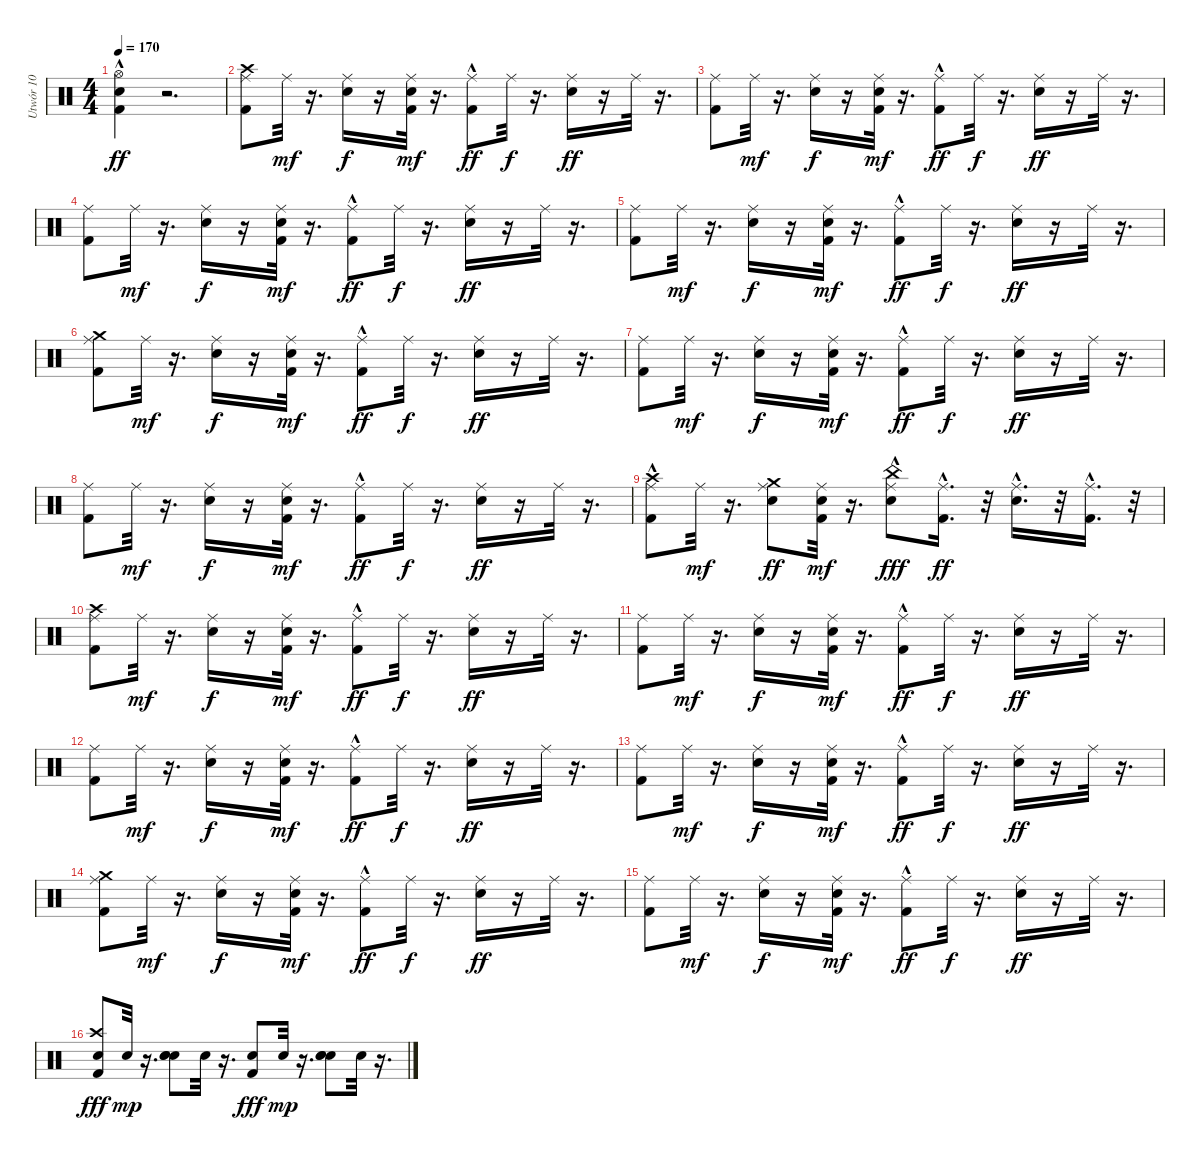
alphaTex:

\track ("Utwór 10" "Utwór 10") {instrument percussion}
\staff {score}
\articulation defaults
\ts (4 4)
\tempo 170
\clef neutral
\ks c
("Hi-Hat (open)" "Electric Snare (hit)" "Kick (hit) 2"{hac}).4{dy ff} r.2{d} |
("Crash high (hit)" "Kick (hit) 2" "Ride (middle)").8 "Ride (middle)".32{dy mf} r.16{d} ("Ride (middle)" "Snare (hit) 2").16{dy f} r.16 ("Ride (middle)" "Snare (hit) 2" "Kick (hit) 2").32{dy mf} r.16{d} ("Ride (middle)" "Kick (hit) 2"{hac}).8{dy ff} "Ride (middle)".32{dy f} r.16{d} ("Snare (hit) 2" "Ride (middle)").16{dy ff} r.16 "Ride (middle)".32 r.16{d} |
("Kick (hit) 2" "Ride (middle)").8 "Ride (middle)".32{dy mf} r.16{d} ("Snare (hit) 2" "Ride (middle)").16{dy f} r.16 ("Snare (hit) 2" "Ride (middle)" "Kick (hit) 2").32{dy mf} r.16{d} ("Ride (middle)" "Kick (hit) 2"{hac}).8{dy ff} "Ride (middle)".32{dy f} r.16{d} ("Snare (hit) 2" "Ride (middle)").16{dy ff} r.16 "Ride (middle)".32 r.16{d} |
("Ride (middle)" "Kick (hit) 2").8 "Ride (middle)".32{dy mf} r.16{d} ("Ride (middle)" "Snare (hit) 2").16{dy f} r.16 ("Snare (hit) 2" "Kick (hit) 2" "Ride (middle)").32{dy mf} r.16{d} ("Ride (middle)" "Kick (hit) 2"{hac}).8{dy ff} "Ride (middle)".32{dy f} r.16{d} ("Ride (middle)" "Snare (hit) 2").16{dy ff} r.16 "Ride (middle)".32 r.16{d} |
("Ride (middle)" "Kick (hit) 2").8 "Ride (middle)".32{dy mf} r.16{d} ("Snare (hit) 2" "Ride (middle)").16{dy f} r.16 ("Ride (middle)" "Kick (hit) 2" "Snare (hit) 2").32{dy mf} r.16{d} ("Ride (middle)" "Kick (hit) 2"{hac}).8{dy ff} "Ride (middle)".32{dy f} r.16{d} ("Snare (hit) 2" "Ride (middle)").16{dy ff} r.16 "Ride (middle)".32 r.16{d} |
("Crash medium (hit)" "Ride (middle)" "Kick (hit) 2").8 "Ride (middle)".32{dy mf} r.16{d} ("Snare (hit) 2" "Ride (middle)").16{dy f} r.16 ("Kick (hit) 2" "Ride (middle)" "Snare (hit) 2").32{dy mf} r.16{d} ("Kick (hit) 2"{hac} "Ride (middle)").8{dy ff} "Ride (middle)".32{dy f} r.16{d} ("Snare (hit) 2" "Ride (middle)").16{dy ff} r.16 "Ride (middle)".32 r.16{d} |
("Kick (hit) 2" "Ride (middle)").8 "Ride (middle)".32{dy mf} r.16{d} ("Snare (hit) 2" "Ride (middle)").16{dy f} r.16 ("Snare (hit) 2" "Ride (middle)" "Kick (hit) 2").32{dy mf} r.16{d} ("Ride (middle)" "Kick (hit) 2"{hac}).8{dy ff} "Ride (middle)".32{dy f} r.16{d} ("Snare (hit) 2" "Ride (middle)").16{dy ff} r.16 "Ride (middle)".32 r.16{d} |
("Ride (middle)" "Kick (hit) 2").8 "Ride (middle)".32{dy mf} r.16{d} ("Snare (hit) 2" "Ride (middle)").16{dy f} r.16 ("Ride (middle)" "Kick (hit) 2" "Snare (hit) 2").32{dy mf} r.16{d} ("Kick (hit) 2"{hac} "Ride (middle)").8{dy ff} "Ride (middle)".32{dy f} r.16{d} ("Snare (hit) 2" "Ride (middle)").16{dy ff} r.16 "Ride (middle)".32 r.16{d} |
("Kick (hit) 2" "Ride (middle)" "Crash high (hit)"{hac}).8 "Ride (middle)".32{dy mf} r.16{d} ("Snare (hit) 2" "Crash medium (hit)" "Ride (middle)").8{dy ff} ("Snare (hit) 2" "Kick (hit) 2" "Ride (middle)").32{dy mf} r.16{d} ("Snare (hit) 2" "Ride (middle)" "China (hit)"{hac}).8{dy fff} ("Kick (hit) 2"{hac} "Ride (middle)").16{d dy ff} r.32 ("Snare (hit) 2"{hac} "Ride (middle)").16{d} r.32 ("Kick (hit) 2"{hac} "Ride (middle)").16{d} r.32 |
("Ride (middle)" "Crash high (hit)" "Kick (hit) 2").8 "Ride (middle)".32{dy mf} r.16{d} ("Snare (hit) 2" "Ride (middle)").16{dy f} r.16 ("Kick (hit) 2" "Snare (hit) 2" "Ride (middle)").32{dy mf} r.16{d} ("Ride (middle)" "Kick (hit) 2"{hac}).8{dy ff} "Ride (middle)".32{dy f} r.16{d} ("Ride (middle)" "Snare (hit) 2").16{dy ff} r.16 "Ride (middle)".32 r.16{d} |
("Kick (hit) 2" "Ride (middle)").8 "Ride (middle)".32{dy mf} r.16{d} ("Ride (middle)" "Snare (hit) 2").16{dy f} r.16 ("Ride (middle)" "Snare (hit) 2" "Kick (hit) 2").32{dy mf} r.16{d} ("Ride (middle)" "Kick (hit) 2"{hac}).8{dy ff} "Ride (middle)".32{dy f} r.16{d} ("Snare (hit) 2" "Ride (middle)").16{dy ff} r.16 "Ride (middle)".32 r.16{d} |
("Ride (middle)" "Kick (hit) 2").8 "Ride (middle)".32{dy mf} r.16{d} ("Ride (middle)" "Snare (hit) 2").16{dy f} r.16 ("Ride (middle)" "Kick (hit) 2" "Snare (hit) 2").32{dy mf} r.16{d} ("Ride (middle)" "Kick (hit) 2"{hac}).8{dy ff} "Ride (middle)".32{dy f} r.16{d} ("Ride (middle)" "Snare (hit) 2").16{dy ff} r.16 "Ride (middle)".32 r.16{d} |
("Kick (hit) 2" "Ride (middle)").8 "Ride (middle)".32{dy mf} r.16{d} ("Ride (middle)" "Snare (hit) 2").16{dy f} r.16 ("Kick (hit) 2" "Ride (middle)" "Snare (hit) 2").32{dy mf} r.16{d} ("Kick (hit) 2"{hac} "Ride (middle)").8{dy ff} "Ride (middle)".32{dy f} r.16{d} ("Snare (hit) 2" "Ride (middle)").16{dy ff} r.16 "Ride (middle)".32 r.16{d} |
("Kick (hit) 2" "Ride (middle)" "Crash medium (hit)").8 "Ride (middle)".32{dy mf} r.16{d} ("Snare (hit) 2" "Ride (middle)").16{dy f} r.16 ("Ride (middle)" "Kick (hit) 2" "Snare (hit) 2").32{dy mf} r.16{d} ("Kick (hit) 2"{hac} "Ride (middle)").8{dy ff} "Ride (middle)".32{dy f} r.16{d} ("Snare (hit) 2" "Ride (middle)").16{dy ff} r.16 "Ride (middle)".32 r.16{d} |
("Ride (middle)" "Kick (hit) 2").8 "Ride (middle)".32{dy mf} r.16{d} ("Snare (hit) 2" "Ride (middle)").16{dy f} r.16 ("Ride (middle)" "Snare (hit) 2" "Kick (hit) 2").32{dy mf} r.16{d} ("Ride (middle)" "Kick (hit) 2"{hac}).8{dy ff} "Ride (middle)".32{dy f} r.16{d} ("Ride (middle)" "Snare (hit) 2").16{dy ff} r.16 "Ride (middle)".32 r.16{d} |
("Crash high (hit)" "Snare (hit) 2" "Kick (hit) 2").8{dy fff} "Snare (hit) 2".32{dy mp} r.16{d} ("Snare (hit) 2" "Snare (hit) 2" "Snare (hit) 2").8 "Snare (hit) 2".32 r.16{d} ("Snare (hit) 2" "Kick (hit) 2").8{dy fff} "Snare (hit) 2".32{dy mp} r.16{d} ("Snare (hit) 2" "Snare (hit) 2" "Snare (hit) 2").8 "Snare (hit) 2".32 r.16{d}
